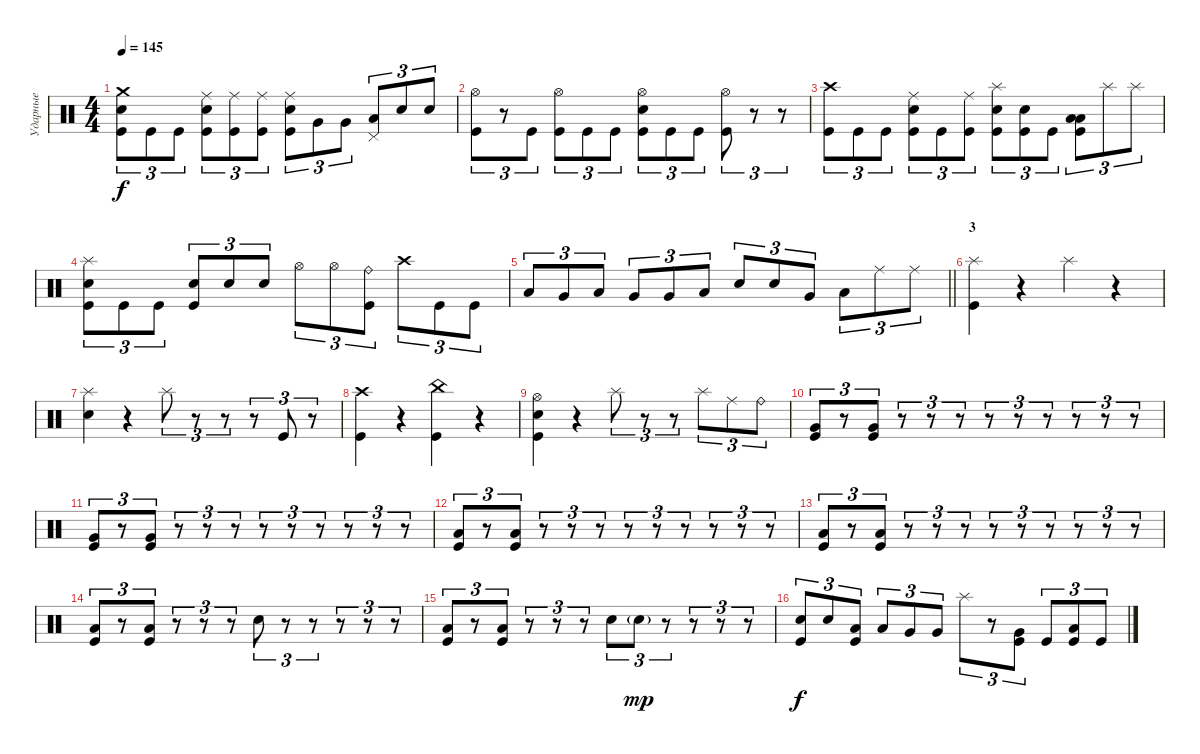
\track ("Ударные" "Ударные") {instrument percussion}
\staff {score}
\articulation defaults
\ts (4 4)
\tempo 145
\clef neutral
\ks c
("Crash medium (hit)" "Electric Snare (hit)" "Kick (hit)").8{tu (3 2) dy f} "Kick (hit)".8{tu (3 2)} "Kick (hit)".8{tu (3 2)} ("Ride (middle)" "Electric Snare (hit)" "Kick (hit)").8{tu (3 2)} ("Ride (middle)" "Kick (hit)").8{tu (3 2)} ("Ride (middle)" "Kick (hit)").8{tu (3 2)} ("Ride (middle)" "Electric Snare (hit)" "Kick (hit)").8{tu (3 2)} "Very Low Tom (hit)".8{tu (3 2)} "Very Low Tom (hit)".8{tu (3 2)} ("Pedal Hi-Hat (hit)" "Low Floor Tom (hit)").8{tu (3 2)} "Electric Snare (hit)".8{tu (3 2)} "Electric Snare (hit)".8{tu (3 2)} |
("Hi-Hat (open)" "Kick (hit)").8{tu (3 2)} r.8{tu (3 2)} "Kick (hit)".8{tu (3 2)} ("Hi-Hat (open)" "Kick (hit)").8{tu (3 2)} "Kick (hit)".8{tu (3 2)} "Kick (hit)".8{tu (3 2)} ("Hi-Hat (open)" "Electric Snare (hit)" "Kick (hit)").8{tu (3 2)} "Kick (hit)".8{tu (3 2)} "Kick (hit)".8{tu (3 2)} ("Hi-Hat (open)" "Kick (hit)").8{tu (3 2)} r.8{tu (3 2)} r.8{tu (3 2)} |
("Crash high (hit)" "Kick (hit)").8{tu (3 2)} "Kick (hit)".8{tu (3 2)} "Kick (hit)".8{tu (3 2)} ("Ride (middle)" "Electric Snare (hit)" "Kick (hit)").8{tu (3 2)} "Kick (hit)".8{tu (3 2)} ("Ride (middle)" "Kick (hit)").8{tu (3 2)} ("Splash (hit)" "Electric Snare (hit)" "Kick (hit)").8{tu (3 2)} ("Electric Snare (hit)" "Kick (hit)").8{tu (3 2)} "Kick (hit)".8{tu (3 2)} ("Low Tom (hit)" "Low Floor Tom (hit)" "Kick (hit)").8{tu (3 2)} "Splash (hit)".8{tu (3 2)} "Splash (hit)".8{tu (3 2)} |
("Splash (hit)" "Electric Snare (hit)" "Kick (hit)").8{tu (3 2)} "Kick (hit)".8{tu (3 2)} "Kick (hit)".8{tu (3 2)} ("Electric Snare (hit)" "Kick (hit)").8{tu (3 2)} "Electric Snare (hit)".8{tu (3 2)} "Electric Snare (hit)".8{tu (3 2)} "Hi-Hat (open)".8{tu (3 2)} "Hi-Hat (open)".8{tu (3 2)} ("Ride (bell)" "Kick (hit)").8{tu (3 2)} "Crash high (hit)".8{tu (3 2)} "Kick (hit)".8{tu (3 2)} "Kick (hit)".8{tu (3 2)} |
\barLineRight lightlight "Low Tom (hit)".8{tu (3 2)} "Very Low Tom (hit)".8{tu (3 2)} "Low Tom (hit)".8{tu (3 2)} "Very Low Tom (hit)".8{tu (3 2)} "Very Low Tom (hit)".8{tu (3 2)} "Low Floor Tom (hit)".8{tu (3 2)} "Electric Snare (hit)".8{tu (3 2)} "Electric Snare (hit)".8{tu (3 2)} "Very Low Tom (hit)".8{tu (3 2)} "Low Tom (hit)".8{tu (3 2)} "Ride (middle)".8{tu (3 2)} "Ride (middle)".8{tu (3 2)}
|
\section ("" "3")
("Splash (hit)" "Kick (hit)").4 r.4 "Splash (hit)".4 r.4 |
("Splash (hit)" "Electric Snare (hit)").4 r.4 "Splash (hit)".8{tu (3 2)} r.8{tu (3 2)} r.8{tu (3 2)} r.8{tu (3 2)} "Kick (hit)".8{tu (3 2)} r.8{tu (3 2)} |
("Crash high (hit)" "Kick (hit)").4 r.4 ("China (hit)" "Kick (hit)").4 r.4 |
("Hi-Hat (open)" "Electric Snare (hit)" "Kick (hit)").4 r.4 "Splash (hit)".8{tu (3 2)} r.8{tu (3 2)} r.8{tu (3 2)} "Splash (hit)".8{tu (3 2)} "Ride (middle)".8{tu (3 2)} "Ride (bell)".8{tu (3 2)} |
("Very Low Tom (hit)" "Kick (hit)").8{tu (3 2)} r.8{tu (3 2)} ("Very Low Tom (hit)" "Kick (hit)").8{tu (3 2)} r.8{tu (3 2)} r.8{tu (3 2)} r.8{tu (3 2)} r.8{tu (3 2)} r.8{tu (3 2)} r.8{tu (3 2)} r.8{tu (3 2)} r.8{tu (3 2)} r.8{tu (3 2)} |
("Very Low Tom (hit)" "Kick (hit)").8{tu (3 2)} r.8{tu (3 2)} ("Very Low Tom (hit)" "Kick (hit)").8{tu (3 2)} r.8{tu (3 2)} r.8{tu (3 2)} r.8{tu (3 2)} r.8{tu (3 2)} r.8{tu (3 2)} r.8{tu (3 2)} r.8{tu (3 2)} r.8{tu (3 2)} r.8{tu (3 2)} |
("Low Floor Tom (hit)" "Kick (hit)").8{tu (3 2)} r.8{tu (3 2)} ("Low Floor Tom (hit)" "Kick (hit)").8{tu (3 2)} r.8{tu (3 2)} r.8{tu (3 2)} r.8{tu (3 2)} r.8{tu (3 2)} r.8{tu (3 2)} r.8{tu (3 2)} r.8{tu (3 2)} r.8{tu (3 2)} r.8{tu (3 2)} |
("Low Floor Tom (hit)" "Kick (hit)").8{tu (3 2)} r.8{tu (3 2)} ("Low Floor Tom (hit)" "Kick (hit)").8{tu (3 2)} r.8{tu (3 2)} r.8{tu (3 2)} r.8{tu (3 2)} r.8{tu (3 2)} r.8{tu (3 2)} r.8{tu (3 2)} r.8{tu (3 2)} r.8{tu (3 2)} r.8{tu (3 2)} |
("Low Floor Tom (hit)" "Kick (hit)").8{tu (3 2)} r.8{tu (3 2)} ("Low Floor Tom (hit)" "Kick (hit)").8{tu (3 2)} r.8{tu (3 2)} r.8{tu (3 2)} r.8{tu (3 2)} "Electric Snare (hit)".8{tu (3 2)} r.8{tu (3 2)} r.8{tu (3 2)} r.8{tu (3 2)} r.8{tu (3 2)} r.8{tu (3 2)} |
("Low Floor Tom (hit)" "Kick (hit)").8{tu (3 2)} r.8{tu (3 2)} ("Low Floor Tom (hit)" "Kick (hit)").8{tu (3 2)} r.8{tu (3 2)} r.8{tu (3 2)} r.8{tu (3 2)} "Electric Snare (hit)".8{tu (3 2)} "Electric Snare (hit)"{g}.8{tu (3 2) dy mp} r.8{tu (3 2)} r.8{tu (3 2)} r.8{tu (3 2)} r.8{tu (3 2)} |
("Electric Snare (hit)" "Kick (hit)").8{tu (3 2) dy f} "Electric Snare (hit)".8{tu (3 2)} ("Low Tom (hit)" "Kick (hit)").8{tu (3 2)} "Low Tom (hit)".8{tu (3 2)} "Very Low Tom (hit)".8{tu (3 2)} "Very Low Tom (hit)".8{tu (3 2)} "Splash (hit)".8{tu (3 2)} r.8{tu (3 2)} ("Very Low Tom (hit)" "Kick (hit)").8{tu (3 2)} "Kick (hit)".8{tu (3 2)} ("Low Tom (hit)" "Kick (hit)").8{tu (3 2)} "Kick (hit)".8{tu (3 2)}
